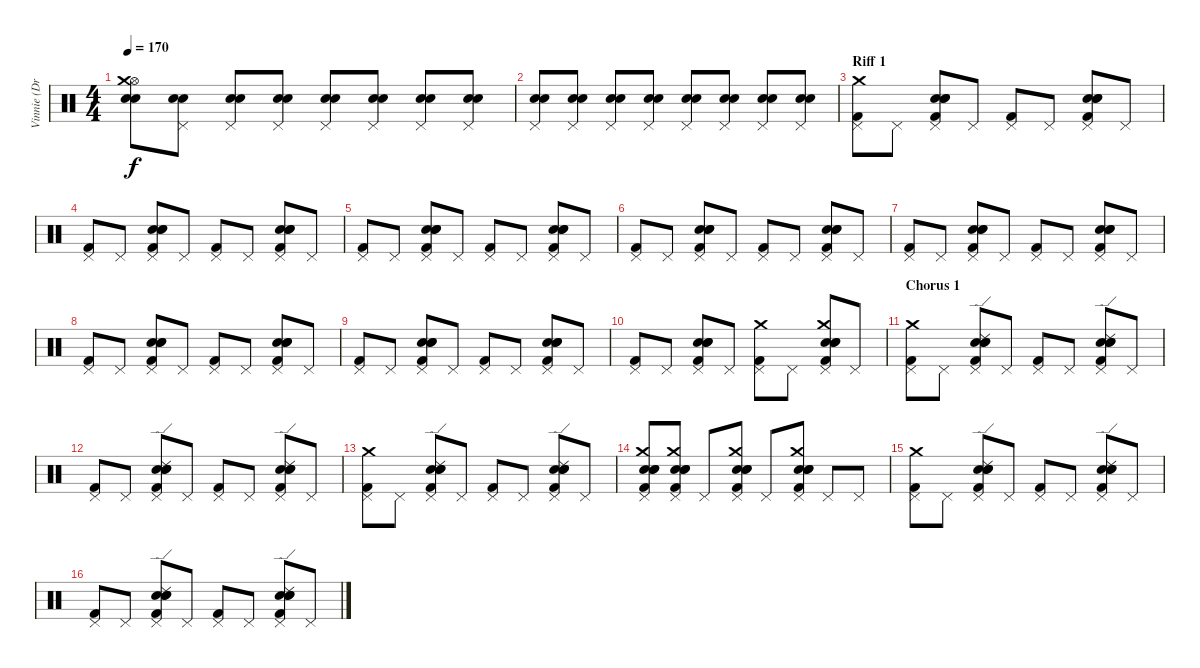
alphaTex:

\track ("Vinnie (Drums)" "Vinnie (Dr") {instrument percussion}
\staff {score}
\articulation defaults
\ts (4 4)
\tempo 170
\clef neutral
\ks c
("Snare (hit) 2" "Electric Snare (hit)" "Hi-Hat (open)" "Crash medium (hit)").8{dy f} ("Snare (hit) 2" "Electric Snare (hit)" "Pedal Hi-Hat (hit)").8 ("Snare (hit) 2" "Electric Snare (hit)" "Pedal Hi-Hat (hit)").8 ("Snare (hit) 2" "Electric Snare (hit)" "Pedal Hi-Hat (hit)").8 ("Snare (hit) 2" "Electric Snare (hit)" "Pedal Hi-Hat (hit)").8 ("Snare (hit) 2" "Electric Snare (hit)" "Pedal Hi-Hat (hit)").8 ("Snare (hit) 2" "Electric Snare (hit)" "Pedal Hi-Hat (hit)").8 ("Snare (hit) 2" "Electric Snare (hit)" "Pedal Hi-Hat (hit)").8 |
("Snare (hit) 2" "Electric Snare (hit)" "Pedal Hi-Hat (hit)").8 ("Snare (hit) 2" "Electric Snare (hit)" "Pedal Hi-Hat (hit)").8 ("Snare (hit) 2" "Electric Snare (hit)" "Pedal Hi-Hat (hit)").8 ("Snare (hit) 2" "Electric Snare (hit)" "Pedal Hi-Hat (hit)").8 ("Snare (hit) 2" "Electric Snare (hit)" "Pedal Hi-Hat (hit)").8 ("Snare (hit) 2" "Electric Snare (hit)" "Pedal Hi-Hat (hit)").8 ("Snare (hit) 2" "Electric Snare (hit)" "Pedal Hi-Hat (hit)").8 ("Snare (hit) 2" "Electric Snare (hit)" "Pedal Hi-Hat (hit)").8 |
\section ("" "Riff 1")
("Kick (hit) 2" "Pedal Hi-Hat (hit)" "Crash medium (hit)").8 "Pedal Hi-Hat (hit)".8 ("Kick (hit) 2" "Snare (hit) 2" "Pedal Hi-Hat (hit)" "Electric Snare (hit)" "Snare (hit) 2").8 "Pedal Hi-Hat (hit)".8 ("Kick (hit) 2" "Pedal Hi-Hat (hit)").8 "Pedal Hi-Hat (hit)".8 ("Kick (hit) 2" "Snare (hit) 2" "Pedal Hi-Hat (hit)" "Electric Snare (hit)" "Snare (hit) 2").8 "Pedal Hi-Hat (hit)".8 |
("Kick (hit) 2" "Pedal Hi-Hat (hit)").8 "Pedal Hi-Hat (hit)".8 ("Kick (hit) 2" "Snare (hit) 2" "Pedal Hi-Hat (hit)" "Electric Snare (hit)" "Snare (hit) 2").8 "Pedal Hi-Hat (hit)".8 ("Kick (hit) 2" "Pedal Hi-Hat (hit)").8 "Pedal Hi-Hat (hit)".8 ("Kick (hit) 2" "Snare (hit) 2" "Pedal Hi-Hat (hit)" "Electric Snare (hit)" "Snare (hit) 2").8 "Pedal Hi-Hat (hit)".8 |
("Kick (hit) 2" "Pedal Hi-Hat (hit)").8 "Pedal Hi-Hat (hit)".8 ("Kick (hit) 2" "Snare (hit) 2" "Pedal Hi-Hat (hit)" "Electric Snare (hit)" "Snare (hit) 2").8 "Pedal Hi-Hat (hit)".8 ("Kick (hit) 2" "Pedal Hi-Hat (hit)").8 "Pedal Hi-Hat (hit)".8 ("Kick (hit) 2" "Snare (hit) 2" "Pedal Hi-Hat (hit)" "Electric Snare (hit)" "Snare (hit) 2").8 "Pedal Hi-Hat (hit)".8 |
("Kick (hit) 2" "Pedal Hi-Hat (hit)").8 "Pedal Hi-Hat (hit)".8 ("Kick (hit) 2" "Snare (hit) 2" "Pedal Hi-Hat (hit)" "Electric Snare (hit)" "Snare (hit) 2").8 "Pedal Hi-Hat (hit)".8 ("Kick (hit) 2" "Pedal Hi-Hat (hit)").8 "Pedal Hi-Hat (hit)".8 ("Kick (hit) 2" "Snare (hit) 2" "Pedal Hi-Hat (hit)" "Electric Snare (hit)" "Snare (hit) 2").8 "Pedal Hi-Hat (hit)".8 |
("Kick (hit) 2" "Pedal Hi-Hat (hit)").8 "Pedal Hi-Hat (hit)".8 ("Kick (hit) 2" "Snare (hit) 2" "Pedal Hi-Hat (hit)" "Electric Snare (hit)" "Snare (hit) 2").8 "Pedal Hi-Hat (hit)".8 ("Kick (hit) 2" "Pedal Hi-Hat (hit)").8 "Pedal Hi-Hat (hit)".8 ("Kick (hit) 2" "Snare (hit) 2" "Pedal Hi-Hat (hit)" "Electric Snare (hit)" "Snare (hit) 2").8 "Pedal Hi-Hat (hit)".8 |
("Kick (hit) 2" "Pedal Hi-Hat (hit)").8 "Pedal Hi-Hat (hit)".8 ("Kick (hit) 2" "Snare (hit) 2" "Pedal Hi-Hat (hit)" "Electric Snare (hit)" "Snare (hit) 2").8 "Pedal Hi-Hat (hit)".8 ("Kick (hit) 2" "Pedal Hi-Hat (hit)").8 "Pedal Hi-Hat (hit)".8 ("Kick (hit) 2" "Snare (hit) 2" "Pedal Hi-Hat (hit)" "Electric Snare (hit)" "Snare (hit) 2").8 "Pedal Hi-Hat (hit)".8 |
("Kick (hit) 2" "Pedal Hi-Hat (hit)").8 "Pedal Hi-Hat (hit)".8 ("Kick (hit) 2" "Snare (hit) 2" "Pedal Hi-Hat (hit)" "Electric Snare (hit)" "Snare (hit) 2").8 "Pedal Hi-Hat (hit)".8 ("Kick (hit) 2" "Pedal Hi-Hat (hit)").8 "Pedal Hi-Hat (hit)".8 ("Kick (hit) 2" "Snare (hit) 2" "Pedal Hi-Hat (hit)" "Electric Snare (hit)" "Snare (hit) 2").8 "Pedal Hi-Hat (hit)".8 |
("Kick (hit) 2" "Pedal Hi-Hat (hit)").8 "Pedal Hi-Hat (hit)".8 ("Kick (hit) 2" "Snare (hit) 2" "Pedal Hi-Hat (hit)" "Electric Snare (hit)" "Snare (hit) 2").8 "Pedal Hi-Hat (hit)".8 ("Kick (hit) 2" "Pedal Hi-Hat (hit)" "Crash medium (hit)").8 "Pedal Hi-Hat (hit)".8 ("Kick (hit) 2" "Snare (hit) 2" "Pedal Hi-Hat (hit)" "Electric Snare (hit)" "Snare (hit) 2" "Crash medium (hit)").8 "Pedal Hi-Hat (hit)".8 |
\section ("" "Chorus 1")
("Kick (hit) 2" "Pedal Hi-Hat (hit)" "Crash medium (hit)").8 "Pedal Hi-Hat (hit)".8 ("Kick (hit) 2" "Snare (hit) 2" "Pedal Hi-Hat (hit)" "Electric Snare (hit)" "Snare (hit) 2" "Ride (edge) 2").8 "Pedal Hi-Hat (hit)".8 ("Kick (hit) 2" "Pedal Hi-Hat (hit)").8 "Pedal Hi-Hat (hit)".8 ("Kick (hit) 2" "Snare (hit) 2" "Pedal Hi-Hat (hit)" "Electric Snare (hit)" "Snare (hit) 2" "Ride (edge) 2").8 "Pedal Hi-Hat (hit)".8 |
("Kick (hit) 2" "Pedal Hi-Hat (hit)").8 "Pedal Hi-Hat (hit)".8 ("Kick (hit) 2" "Snare (hit) 2" "Pedal Hi-Hat (hit)" "Electric Snare (hit)" "Snare (hit) 2" "Ride (edge) 2").8 "Pedal Hi-Hat (hit)".8 ("Kick (hit) 2" "Pedal Hi-Hat (hit)").8 "Pedal Hi-Hat (hit)".8 ("Kick (hit) 2" "Snare (hit) 2" "Pedal Hi-Hat (hit)" "Electric Snare (hit)" "Snare (hit) 2" "Ride (edge) 2").8 "Pedal Hi-Hat (hit)".8 |
("Kick (hit) 2" "Pedal Hi-Hat (hit)" "Crash medium (hit)").8 "Pedal Hi-Hat (hit)".8 ("Kick (hit) 2" "Snare (hit) 2" "Pedal Hi-Hat (hit)" "Electric Snare (hit)" "Snare (hit) 2" "Ride (edge) 2").8 "Pedal Hi-Hat (hit)".8 ("Kick (hit) 2" "Pedal Hi-Hat (hit)").8 "Pedal Hi-Hat (hit)".8 ("Kick (hit) 2" "Snare (hit) 2" "Pedal Hi-Hat (hit)" "Electric Snare (hit)" "Snare (hit) 2" "Ride (edge) 2").8 "Pedal Hi-Hat (hit)".8 |
("Kick (hit) 2" "Snare (hit) 2" "Pedal Hi-Hat (hit)" "Electric Snare (hit)" "Snare (hit) 2" "Crash medium (hit)").8 ("Kick (hit) 2" "Snare (hit) 2" "Pedal Hi-Hat (hit)" "Electric Snare (hit)" "Snare (hit) 2" "Crash medium (hit)").8 "Pedal Hi-Hat (hit)".8 ("Kick (hit) 2" "Snare (hit) 2" "Pedal Hi-Hat (hit)" "Electric Snare (hit)" "Snare (hit) 2" "Crash medium (hit)").8 "Pedal Hi-Hat (hit)".8 ("Kick (hit) 2" "Snare (hit) 2" "Pedal Hi-Hat (hit)" "Electric Snare (hit)" "Snare (hit) 2" "Crash medium (hit)").8 "Pedal Hi-Hat (hit)".8 "Pedal Hi-Hat (hit)".8 |
("Kick (hit) 2" "Pedal Hi-Hat (hit)" "Crash medium (hit)").8 "Pedal Hi-Hat (hit)".8 ("Kick (hit) 2" "Snare (hit) 2" "Pedal Hi-Hat (hit)" "Electric Snare (hit)" "Snare (hit) 2" "Ride (edge) 2").8 "Pedal Hi-Hat (hit)".8 ("Kick (hit) 2" "Pedal Hi-Hat (hit)").8 "Pedal Hi-Hat (hit)".8 ("Kick (hit) 2" "Snare (hit) 2" "Pedal Hi-Hat (hit)" "Electric Snare (hit)" "Snare (hit) 2" "Ride (edge) 2").8 "Pedal Hi-Hat (hit)".8 |
("Kick (hit) 2" "Pedal Hi-Hat (hit)").8 "Pedal Hi-Hat (hit)".8 ("Kick (hit) 2" "Snare (hit) 2" "Pedal Hi-Hat (hit)" "Electric Snare (hit)" "Snare (hit) 2" "Ride (edge) 2").8 "Pedal Hi-Hat (hit)".8 ("Kick (hit) 2" "Pedal Hi-Hat (hit)").8 "Pedal Hi-Hat (hit)".8 ("Kick (hit) 2" "Snare (hit) 2" "Pedal Hi-Hat (hit)" "Electric Snare (hit)" "Snare (hit) 2" "Ride (edge) 2").8 "Pedal Hi-Hat (hit)".8
